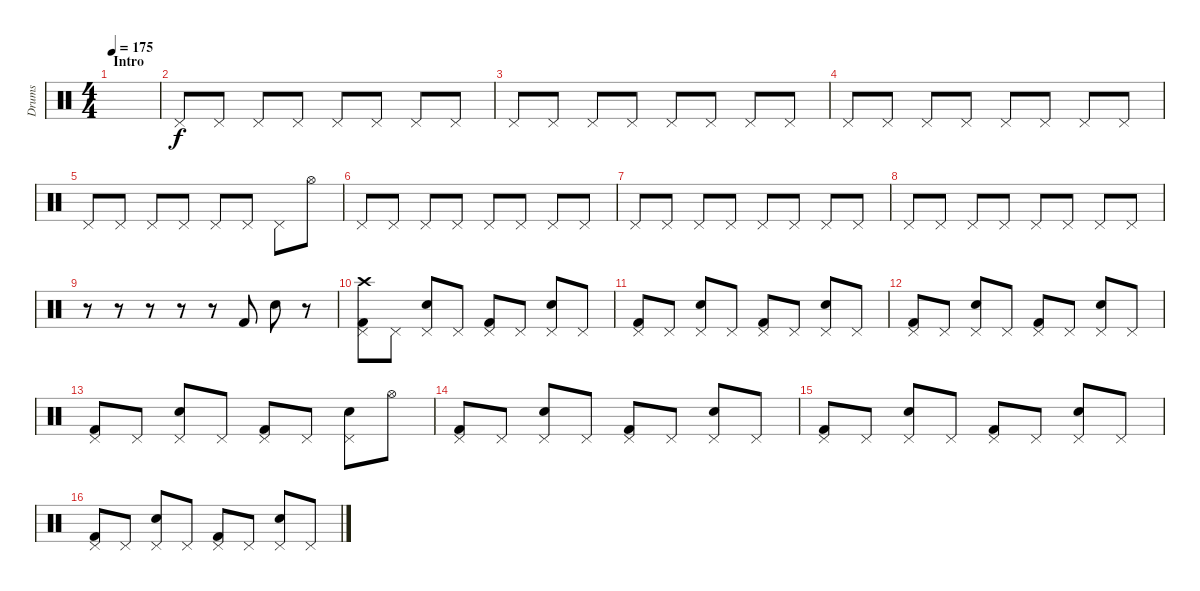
\track ("Drums" "Drums") {instrument percussion}
\staff {score}
\articulation defaults
\ts (4 4)
\section ("" "Intro")
\tempo 175
\clef neutral
\ks c
|
"Pedal Hi-Hat (hit)".8 "Pedal Hi-Hat (hit)".8 "Pedal Hi-Hat (hit)".8 "Pedal Hi-Hat (hit)".8 "Pedal Hi-Hat (hit)".8 "Pedal Hi-Hat (hit)".8 "Pedal Hi-Hat (hit)".8 "Pedal Hi-Hat (hit)".8 |
"Pedal Hi-Hat (hit)".8 "Pedal Hi-Hat (hit)".8 "Pedal Hi-Hat (hit)".8 "Pedal Hi-Hat (hit)".8 "Pedal Hi-Hat (hit)".8 "Pedal Hi-Hat (hit)".8 "Pedal Hi-Hat (hit)".8 "Pedal Hi-Hat (hit)".8 |
"Pedal Hi-Hat (hit)".8 "Pedal Hi-Hat (hit)".8 "Pedal Hi-Hat (hit)".8 "Pedal Hi-Hat (hit)".8 "Pedal Hi-Hat (hit)".8 "Pedal Hi-Hat (hit)".8 "Pedal Hi-Hat (hit)".8 "Pedal Hi-Hat (hit)".8 |
"Pedal Hi-Hat (hit)".8 "Pedal Hi-Hat (hit)".8 "Pedal Hi-Hat (hit)".8 "Pedal Hi-Hat (hit)".8 "Pedal Hi-Hat (hit)".8 "Pedal Hi-Hat (hit)".8 "Pedal Hi-Hat (hit)".8 "Hi-Hat (open)".8 |
"Pedal Hi-Hat (hit)".8 "Pedal Hi-Hat (hit)".8 "Pedal Hi-Hat (hit)".8 "Pedal Hi-Hat (hit)".8 "Pedal Hi-Hat (hit)".8 "Pedal Hi-Hat (hit)".8 "Pedal Hi-Hat (hit)".8 "Pedal Hi-Hat (hit)".8 |
"Pedal Hi-Hat (hit)".8 "Pedal Hi-Hat (hit)".8 "Pedal Hi-Hat (hit)".8 "Pedal Hi-Hat (hit)".8 "Pedal Hi-Hat (hit)".8 "Pedal Hi-Hat (hit)".8 "Pedal Hi-Hat (hit)".8 "Pedal Hi-Hat (hit)".8 |
"Pedal Hi-Hat (hit)".8 "Pedal Hi-Hat (hit)".8 "Pedal Hi-Hat (hit)".8 "Pedal Hi-Hat (hit)".8 "Pedal Hi-Hat (hit)".8 "Pedal Hi-Hat (hit)".8 "Pedal Hi-Hat (hit)".8 "Pedal Hi-Hat (hit)".8 |
r.8 r.8 r.8 r.8 r.8 "Kick (hit) 2".8 "Snare (hit) 2".8 r.8 |
("Crash high (hit)" "Pedal Hi-Hat (hit)" "Kick (hit) 2").8 "Pedal Hi-Hat (hit)".8 ("Pedal Hi-Hat (hit)" "Snare (hit) 2").8 "Pedal Hi-Hat (hit)".8 ("Pedal Hi-Hat (hit)" "Kick (hit) 2").8 "Pedal Hi-Hat (hit)".8 ("Pedal Hi-Hat (hit)" "Snare (hit) 2").8 "Pedal Hi-Hat (hit)".8 |
("Pedal Hi-Hat (hit)" "Kick (hit) 2").8 "Pedal Hi-Hat (hit)".8 ("Pedal Hi-Hat (hit)" "Snare (hit) 2").8 "Pedal Hi-Hat (hit)".8 ("Pedal Hi-Hat (hit)" "Kick (hit) 2").8 "Pedal Hi-Hat (hit)".8 ("Pedal Hi-Hat (hit)" "Snare (hit) 2").8 "Pedal Hi-Hat (hit)".8 |
("Pedal Hi-Hat (hit)" "Kick (hit) 2").8 "Pedal Hi-Hat (hit)".8 ("Pedal Hi-Hat (hit)" "Snare (hit) 2").8 "Pedal Hi-Hat (hit)".8 ("Pedal Hi-Hat (hit)" "Kick (hit) 2").8 "Pedal Hi-Hat (hit)".8 ("Pedal Hi-Hat (hit)" "Snare (hit) 2").8 "Pedal Hi-Hat (hit)".8 |
("Pedal Hi-Hat (hit)" "Kick (hit) 2").8 "Pedal Hi-Hat (hit)".8 ("Pedal Hi-Hat (hit)" "Snare (hit) 2").8 "Pedal Hi-Hat (hit)".8 ("Pedal Hi-Hat (hit)" "Kick (hit) 2").8 "Pedal Hi-Hat (hit)".8 ("Pedal Hi-Hat (hit)" "Snare (hit) 2").8 "Hi-Hat (open)".8 |
("Pedal Hi-Hat (hit)" "Kick (hit) 2").8 "Pedal Hi-Hat (hit)".8 ("Pedal Hi-Hat (hit)" "Snare (hit) 2").8 "Pedal Hi-Hat (hit)".8 ("Pedal Hi-Hat (hit)" "Kick (hit) 2").8 "Pedal Hi-Hat (hit)".8 ("Pedal Hi-Hat (hit)" "Snare (hit) 2").8 "Pedal Hi-Hat (hit)".8 |
("Pedal Hi-Hat (hit)" "Kick (hit) 2").8 "Pedal Hi-Hat (hit)".8 ("Pedal Hi-Hat (hit)" "Snare (hit) 2").8 "Pedal Hi-Hat (hit)".8 ("Pedal Hi-Hat (hit)" "Kick (hit) 2").8 "Pedal Hi-Hat (hit)".8 ("Pedal Hi-Hat (hit)" "Snare (hit) 2").8 "Pedal Hi-Hat (hit)".8 |
("Pedal Hi-Hat (hit)" "Kick (hit) 2").8 "Pedal Hi-Hat (hit)".8 ("Pedal Hi-Hat (hit)" "Snare (hit) 2").8 "Pedal Hi-Hat (hit)".8 ("Pedal Hi-Hat (hit)" "Kick (hit) 2").8 "Pedal Hi-Hat (hit)".8 ("Pedal Hi-Hat (hit)" "Snare (hit) 2").8 "Pedal Hi-Hat (hit)".8
